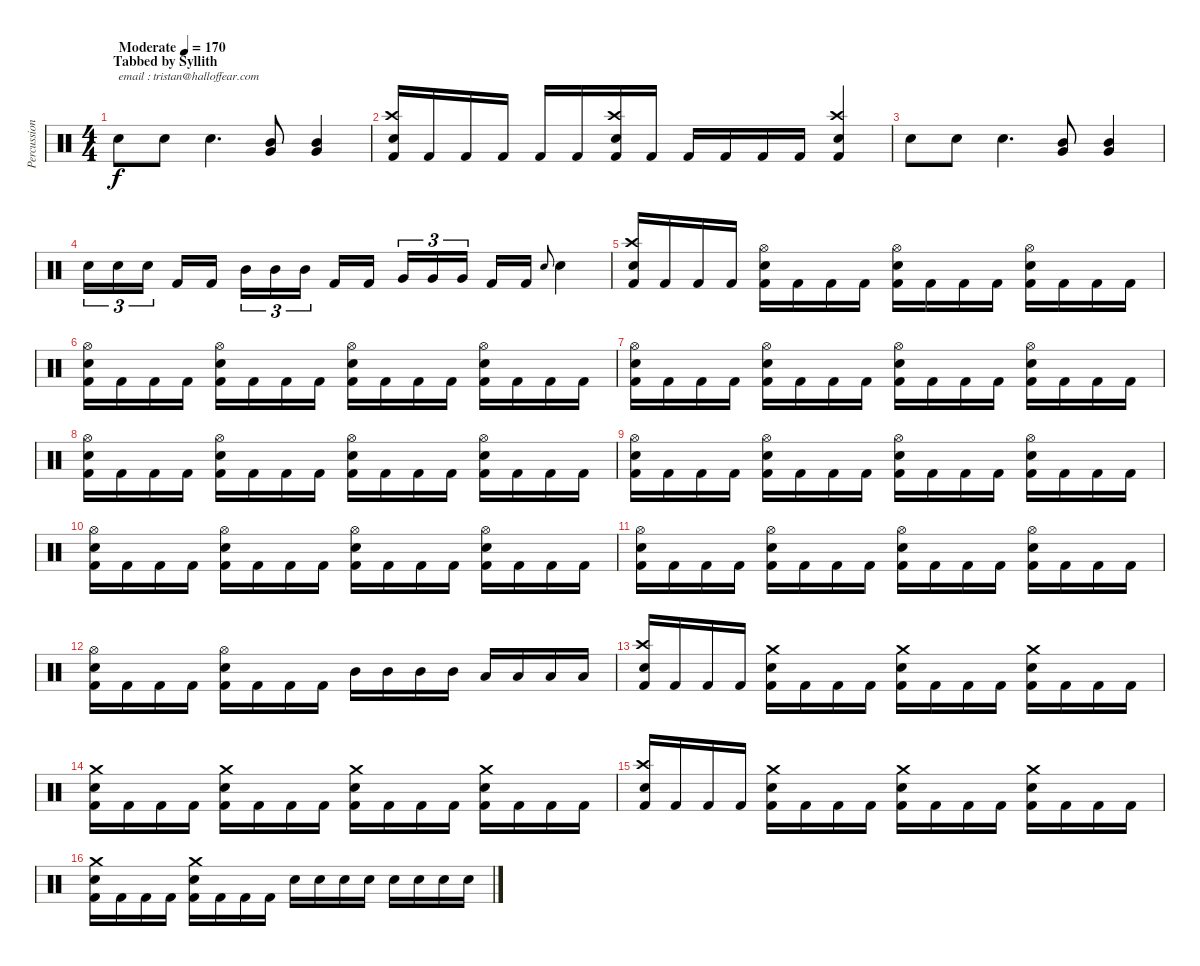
\track ("Percussions" "Percussion") {instrument percussion}
\staff {score}
\articulation defaults
\ts (4 4)
\section ("" "Tabbed by Syllith")
\tempo (170 "Moderate")
\clef neutral
\ks c "Electric Snare (hit)".8{txt "email : tristan@halloffear.com" dy f} "Electric Snare (hit)".8 "Electric Snare (hit)".4{d}
("Mid Tom (hit)" "Very Low Tom (hit)").8 ("Mid Tom (hit)" "Very Low Tom (hit)").4 |
("Crash high (hit)" "Electric Snare (hit)" "Kick (hit) 2").16 "Kick (hit) 2".16 "Kick (hit) 2".16 "Kick (hit) 2".16 "Kick (hit) 2".16 "Kick (hit) 2".16 ("Crash high (hit)" "Electric Snare (hit)" "Kick (hit) 2").16 "Kick (hit) 2".16 "Kick (hit) 2".16 "Kick (hit) 2".16 "Kick (hit) 2".16 "Kick (hit) 2".16 ("Crash high (hit)" "Electric Snare (hit)" "Kick (hit) 2").4 |
"Electric Snare (hit)".8 "Electric Snare (hit)".8 "Electric Snare (hit)".4{d} ("Mid Tom (hit)" "Very Low Tom (hit)").8 ("Mid Tom (hit)" "Very Low Tom (hit)").4 |
"Electric Snare (hit)".16{tu (3 2)} "Electric Snare (hit)".16{tu (3 2)} "Electric Snare (hit)".16{tu (3 2) beam splitsecondary} "Kick (hit) 2".16 "Kick (hit) 2".16 "Mid Tom (hit)".16{tu (3 2)} "Mid Tom (hit)".16{tu (3 2)} "Mid Tom (hit)".16{tu (3 2) beam splitsecondary} "Kick (hit) 2".16 "Kick (hit) 2".16 "Very Low Tom (hit)".16{tu (3 2)} "Very Low Tom (hit)".16{tu (3 2)} "Very Low Tom (hit)".16{tu (3 2) beam splitsecondary} "Kick (hit) 2".16 "Kick (hit) 2".16 "Electric Snare (hit)".8{gr onbeat} "Electric Snare (hit)".4 |
("Crash high (hit)" "Electric Snare (hit)" "Kick (hit) 2").16 "Kick (hit) 2".16 "Kick (hit) 2".16 "Kick (hit) 2".16 ("Hi-Hat (open)" "Electric Snare (hit)" "Kick (hit) 2").16 "Kick (hit) 2".16 "Kick (hit) 2".16 "Kick (hit) 2".16 ("Hi-Hat (open)" "Electric Snare (hit)" "Kick (hit) 2").16 "Kick (hit) 2".16 "Kick (hit) 2".16 "Kick (hit) 2".16 ("Hi-Hat (open)" "Electric Snare (hit)" "Kick (hit) 2").16 "Kick (hit) 2".16 "Kick (hit) 2".16 "Kick (hit) 2".16 |
("Hi-Hat (open)" "Electric Snare (hit)" "Kick (hit) 2").16 "Kick (hit) 2".16 "Kick (hit) 2".16 "Kick (hit) 2".16 ("Hi-Hat (open)" "Electric Snare (hit)" "Kick (hit) 2").16 "Kick (hit) 2".16 "Kick (hit) 2".16 "Kick (hit) 2".16 ("Hi-Hat (open)" "Electric Snare (hit)" "Kick (hit) 2").16 "Kick (hit) 2".16 "Kick (hit) 2".16 "Kick (hit) 2".16 ("Hi-Hat (open)" "Electric Snare (hit)" "Kick (hit) 2").16 "Kick (hit) 2".16 "Kick (hit) 2".16 "Kick (hit) 2".16 |
("Hi-Hat (open)" "Electric Snare (hit)" "Kick (hit) 2").16 "Kick (hit) 2".16 "Kick (hit) 2".16 "Kick (hit) 2".16 ("Hi-Hat (open)" "Electric Snare (hit)" "Kick (hit) 2").16 "Kick (hit) 2".16 "Kick (hit) 2".16 "Kick (hit) 2".16 ("Hi-Hat (open)" "Electric Snare (hit)" "Kick (hit) 2").16 "Kick (hit) 2".16 "Kick (hit) 2".16 "Kick (hit) 2".16 ("Hi-Hat (open)" "Electric Snare (hit)" "Kick (hit) 2").16 "Kick (hit) 2".16 "Kick (hit) 2".16 "Kick (hit) 2".16 |
("Hi-Hat (open)" "Electric Snare (hit)" "Kick (hit) 2").16 "Kick (hit) 2".16 "Kick (hit) 2".16 "Kick (hit) 2".16 ("Hi-Hat (open)" "Electric Snare (hit)" "Kick (hit) 2").16 "Kick (hit) 2".16 "Kick (hit) 2".16 "Kick (hit) 2".16 ("Hi-Hat (open)" "Electric Snare (hit)" "Kick (hit) 2").16 "Kick (hit) 2".16 "Kick (hit) 2".16 "Kick (hit) 2".16 ("Hi-Hat (open)" "Electric Snare (hit)" "Kick (hit) 2").16 "Kick (hit) 2".16 "Kick (hit) 2".16 "Kick (hit) 2".16 |
("Hi-Hat (open)" "Electric Snare (hit)" "Kick (hit) 2").16 "Kick (hit) 2".16 "Kick (hit) 2".16 "Kick (hit) 2".16 ("Hi-Hat (open)" "Electric Snare (hit)" "Kick (hit) 2").16 "Kick (hit) 2".16 "Kick (hit) 2".16 "Kick (hit) 2".16 ("Hi-Hat (open)" "Electric Snare (hit)" "Kick (hit) 2").16 "Kick (hit) 2".16 "Kick (hit) 2".16 "Kick (hit) 2".16 ("Hi-Hat (open)" "Electric Snare (hit)" "Kick (hit) 2").16 "Kick (hit) 2".16 "Kick (hit) 2".16 "Kick (hit) 2".16 |
("Hi-Hat (open)" "Electric Snare (hit)" "Kick (hit) 2").16 "Kick (hit) 2".16 "Kick (hit) 2".16 "Kick (hit) 2".16 ("Hi-Hat (open)" "Electric Snare (hit)" "Kick (hit) 2").16 "Kick (hit) 2".16 "Kick (hit) 2".16 "Kick (hit) 2".16 ("Hi-Hat (open)" "Electric Snare (hit)" "Kick (hit) 2").16 "Kick (hit) 2".16 "Kick (hit) 2".16 "Kick (hit) 2".16 ("Hi-Hat (open)" "Electric Snare (hit)" "Kick (hit) 2").16 "Kick (hit) 2".16 "Kick (hit) 2".16 "Kick (hit) 2".16 |
("Hi-Hat (open)" "Electric Snare (hit)" "Kick (hit) 2").16 "Kick (hit) 2".16 "Kick (hit) 2".16 "Kick (hit) 2".16 ("Hi-Hat (open)" "Electric Snare (hit)" "Kick (hit) 2").16 "Kick (hit) 2".16 "Kick (hit) 2".16 "Kick (hit) 2".16 ("Hi-Hat (open)" "Electric Snare (hit)" "Kick (hit) 2").16 "Kick (hit) 2".16 "Kick (hit) 2".16 "Kick (hit) 2".16 ("Hi-Hat (open)" "Electric Snare (hit)" "Kick (hit) 2").16 "Kick (hit) 2".16 "Kick (hit) 2".16 "Kick (hit) 2".16 |
("Hi-Hat (open)" "Electric Snare (hit)" "Kick (hit) 2").16 "Kick (hit) 2".16 "Kick (hit) 2".16 "Kick (hit) 2".16 ("Hi-Hat (open)" "Electric Snare (hit)" "Kick (hit) 2").16 "Kick (hit) 2".16 "Kick (hit) 2".16 "Kick (hit) 2".16 "Mid Tom (hit)".16 "Mid Tom (hit)".16 "Mid Tom (hit)".16 "Mid Tom (hit)".16 "Low Tom (hit)".16 "Low Tom (hit)".16 "Low Tom (hit)".16 "Low Tom (hit)".16 |
("Crash high (hit)" "Electric Snare (hit)" "Kick (hit) 2").16 "Kick (hit) 2".16 "Kick (hit) 2".16 "Kick (hit) 2".16 ("Crash medium (hit)" "Electric Snare (hit)" "Kick (hit) 2").16 "Kick (hit) 2".16 "Kick (hit) 2".16 "Kick (hit) 2".16 ("Crash medium (hit)" "Electric Snare (hit)" "Kick (hit) 2").16 "Kick (hit) 2".16 "Kick (hit) 2".16 "Kick (hit) 2".16 ("Crash medium (hit)" "Electric Snare (hit)" "Kick (hit) 2").16 "Kick (hit) 2".16 "Kick (hit) 2".16 "Kick (hit) 2".16 |
("Crash medium (hit)" "Electric Snare (hit)" "Kick (hit) 2").16 "Kick (hit) 2".16 "Kick (hit) 2".16 "Kick (hit) 2".16 ("Crash medium (hit)" "Electric Snare (hit)" "Kick (hit) 2").16 "Kick (hit) 2".16 "Kick (hit) 2".16 "Kick (hit) 2".16 ("Crash medium (hit)" "Electric Snare (hit)" "Kick (hit) 2").16 "Kick (hit) 2".16 "Kick (hit) 2".16 "Kick (hit) 2".16 ("Crash medium (hit)" "Electric Snare (hit)" "Kick (hit) 2").16 "Kick (hit) 2".16 "Kick (hit) 2".16 "Kick (hit) 2".16 |
("Crash high (hit)" "Electric Snare (hit)" "Kick (hit) 2").16 "Kick (hit) 2".16 "Kick (hit) 2".16 "Kick (hit) 2".16 ("Crash medium (hit)" "Electric Snare (hit)" "Kick (hit) 2").16 "Kick (hit) 2".16 "Kick (hit) 2".16 "Kick (hit) 2".16 ("Crash medium (hit)" "Electric Snare (hit)" "Kick (hit) 2").16 "Kick (hit) 2".16 "Kick (hit) 2".16 "Kick (hit) 2".16 ("Crash medium (hit)" "Electric Snare (hit)" "Kick (hit) 2").16 "Kick (hit) 2".16 "Kick (hit) 2".16 "Kick (hit) 2".16 |
("Crash medium (hit)" "Electric Snare (hit)" "Kick (hit) 2").16 "Kick (hit) 2".16 "Kick (hit) 2".16 "Kick (hit) 2".16 ("Crash medium (hit)" "Electric Snare (hit)" "Kick (hit) 2").16 "Kick (hit) 2".16 "Kick (hit) 2".16 "Kick (hit) 2".16 "Electric Snare (hit)".16 "Electric Snare (hit)".16 "Electric Snare (hit)".16 "Electric Snare (hit)".16 "Electric Snare (hit)".16 "Electric Snare (hit)".16 "Electric Snare (hit)".16 "Electric Snare (hit)".16
